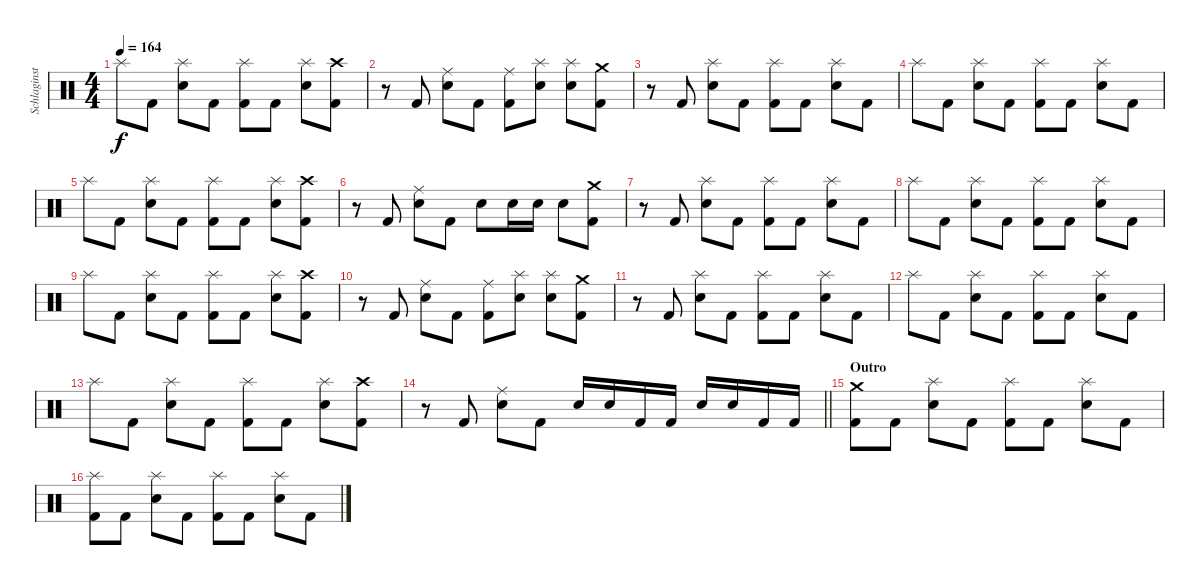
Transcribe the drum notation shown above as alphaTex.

\track ("Schlaginstrumente - Auswahl" "Schlaginst") {instrument percussion}
\staff {score}
\articulation defaults
\ts (4 4)
\tempo 164
\clef neutral
\ks c "Splash (hit)".8{dy f} "Kick (hit) 2".8
("Splash (hit)" "Electric Snare (hit)").8 "Kick (hit) 2".8 ("Splash (hit)" "Kick (hit) 2").8 "Kick (hit) 2".8 ("Splash (hit)" "Electric Snare (hit)").8 ("Crash high (hit)" "Kick (hit) 2").8 |
r.8 "Kick (hit) 2".8 ("Ride (middle)" "Electric Snare (hit)").8 "Kick (hit) 2".8 ("Ride (middle)" "Kick (hit) 2").8 ("Splash (hit)" "Electric Snare (hit)").8 ("Splash (hit)" "Electric Snare (hit)").8 ("Crash medium (hit)" "Kick (hit) 2").8 |
r.8 "Kick (hit) 2".8 ("Splash (hit)" "Electric Snare (hit)").8 "Kick (hit) 2".8 ("Splash (hit)" "Kick (hit) 2").8 "Kick (hit) 2".8 ("Splash (hit)" "Electric Snare (hit)").8 "Kick (hit) 2".8 |
"Splash (hit)".8 "Kick (hit) 2".8 ("Splash (hit)" "Electric Snare (hit)").8 "Kick (hit) 2".8 ("Splash (hit)" "Kick (hit) 2").8 "Kick (hit) 2".8 ("Splash (hit)" "Electric Snare (hit)").8 "Kick (hit) 2".8 |
"Splash (hit)".8 "Kick (hit) 2".8 ("Splash (hit)" "Electric Snare (hit)").8 "Kick (hit) 2".8 ("Splash (hit)" "Kick (hit) 2").8 "Kick (hit) 2".8 ("Splash (hit)" "Electric Snare (hit)").8 ("Crash high (hit)" "Kick (hit) 2").8 |
r.8 "Kick (hit) 2".8 ("Ride (middle)" "Electric Snare (hit)").8 "Kick (hit) 2".8 "Electric Snare (hit)".8 "Electric Snare (hit)".16 "Electric Snare (hit)".16 "Electric Snare (hit)".8 ("Crash medium (hit)" "Kick (hit) 2").8 |
r.8 "Kick (hit) 2".8 ("Splash (hit)" "Electric Snare (hit)").8 "Kick (hit) 2".8 ("Splash (hit)" "Kick (hit) 2").8 "Kick (hit) 2".8 ("Splash (hit)" "Electric Snare (hit)").8 "Kick (hit) 2".8 |
"Splash (hit)".8 "Kick (hit) 2".8 ("Splash (hit)" "Electric Snare (hit)").8 "Kick (hit) 2".8 ("Splash (hit)" "Kick (hit) 2").8 "Kick (hit) 2".8 ("Splash (hit)" "Electric Snare (hit)").8 "Kick (hit) 2".8 |
"Splash (hit)".8 "Kick (hit) 2".8 ("Splash (hit)" "Electric Snare (hit)").8 "Kick (hit) 2".8 ("Splash (hit)" "Kick (hit) 2").8 "Kick (hit) 2".8 ("Splash (hit)" "Electric Snare (hit)").8 ("Crash high (hit)" "Kick (hit) 2").8 |
r.8 "Kick (hit) 2".8 ("Ride (middle)" "Electric Snare (hit)").8 "Kick (hit) 2".8 ("Ride (middle)" "Kick (hit) 2").8 ("Splash (hit)" "Electric Snare (hit)").8 ("Splash (hit)" "Electric Snare (hit)").8 ("Crash medium (hit)" "Kick (hit) 2").8 |
r.8 "Kick (hit) 2".8 ("Splash (hit)" "Electric Snare (hit)").8 "Kick (hit) 2".8 ("Splash (hit)" "Kick (hit) 2").8 "Kick (hit) 2".8 ("Splash (hit)" "Electric Snare (hit)").8 "Kick (hit) 2".8 |
"Splash (hit)".8 "Kick (hit) 2".8 ("Splash (hit)" "Electric Snare (hit)").8 "Kick (hit) 2".8 ("Splash (hit)" "Kick (hit) 2").8 "Kick (hit) 2".8 ("Splash (hit)" "Electric Snare (hit)").8 "Kick (hit) 2".8 |
"Splash (hit)".8 "Kick (hit) 2".8 ("Splash (hit)" "Electric Snare (hit)").8 "Kick (hit) 2".8 ("Splash (hit)" "Kick (hit) 2").8 "Kick (hit) 2".8 ("Splash (hit)" "Electric Snare (hit)").8 ("Crash high (hit)" "Kick (hit) 2").8 |
\barLineRight lightlight
r.8 "Kick (hit) 2".8 ("Ride (middle)" "Electric Snare (hit)").8 "Kick (hit) 2".8 "Electric Snare (hit)".16 "Electric Snare (hit)".16 "Kick (hit) 2".16 "Kick (hit) 2".16 "Electric Snare (hit)".16 "Electric Snare (hit)".16 "Kick (hit) 2".16 "Kick (hit) 2".16 |
\section ("" "Outro")
("Crash medium (hit)" "Kick (hit) 2").8 "Kick (hit) 2".8 ("Splash (hit)" "Electric Snare (hit)").8 "Kick (hit) 2".8 ("Splash (hit)" "Kick (hit) 2").8 "Kick (hit) 2".8 ("Splash (hit)" "Electric Snare (hit)").8 "Kick (hit) 2".8 |
("Splash (hit)" "Kick (hit) 2").8 "Kick (hit) 2".8 ("Splash (hit)" "Electric Snare (hit)").8 "Kick (hit) 2".8 ("Splash (hit)" "Kick (hit) 2").8 "Kick (hit) 2".8 ("Splash (hit)" "Electric Snare (hit)").8 "Kick (hit) 2".8
